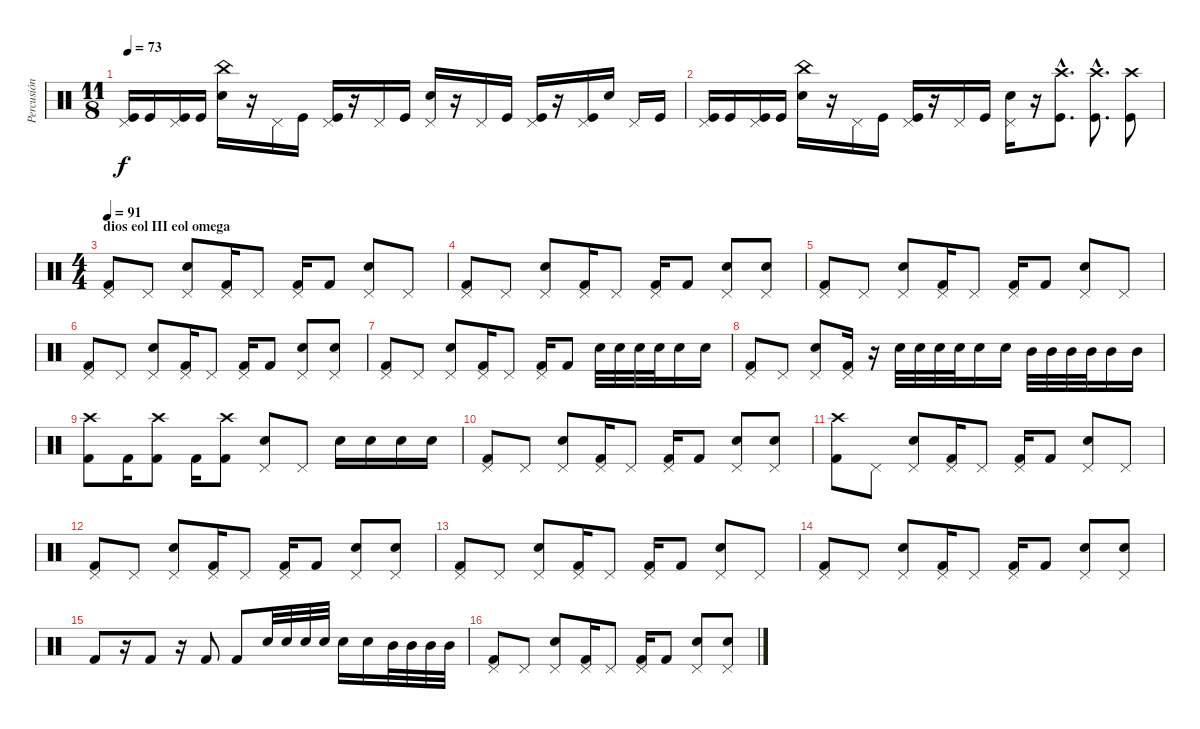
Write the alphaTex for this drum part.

\track ("Percusión" "Percusión") {instrument percussion}
\staff {score}
\articulation defaults
\ts (11 8)
\tempo 73
\clef neutral
\ks c
("Pedal Hi-Hat (hit)" "Kick (hit)").16{dy f} "Kick (hit)".16 ("Pedal Hi-Hat (hit)" "Kick (hit)").16 "Kick (hit)".16 ("China (hit)" "Electric Snare (hit)").16 r.16 "Pedal Hi-Hat (hit)".16 "Kick (hit)".16 ("Pedal Hi-Hat (hit)" "Kick (hit)").16 r.16 "Pedal Hi-Hat (hit)".16 "Kick (hit)".16 ("Pedal Hi-Hat (hit)" "Electric Snare (hit)").16 r.16 "Pedal Hi-Hat (hit)".16 "Kick (hit)".16 ("Pedal Hi-Hat (hit)" "Kick (hit)").16 r.16 ("Pedal Hi-Hat (hit)" "Kick (hit)").16 "Electric Snare (hit)".16 "Pedal Hi-Hat (hit)".16 "Kick (hit)".16 |
("Pedal Hi-Hat (hit)" "Kick (hit)").16 "Kick (hit)".16 ("Pedal Hi-Hat (hit)" "Kick (hit)").16 "Kick (hit)".16 ("China (hit)" "Electric Snare (hit)").16 r.16 "Pedal Hi-Hat (hit)".16 "Kick (hit)".16 ("Pedal Hi-Hat (hit)" "Kick (hit)").16 r.16 "Pedal Hi-Hat (hit)".16 "Kick (hit)".16 ("Pedal Hi-Hat (hit)" "Electric Snare (hit)").16 r.16 ("Crash high (hit)"{hac} "Kick (hit)"{hac}).8{d} ("Crash high (hit)"{hac} "Kick (hit)"{hac}).8{d} ("Crash high (hit)" "Kick (hit)").8 |
\ts (4 4)
\section ("" "dios eol III eol omega")
\tempo 91
("Pedal Hi-Hat (hit)" "Kick (hit) 2").8 "Pedal Hi-Hat (hit)".8 ("Pedal Hi-Hat (hit)" "Electric Snare (hit)").8 ("Pedal Hi-Hat (hit)" "Kick (hit) 2").16 "Pedal Hi-Hat (hit)".8 ("Pedal Hi-Hat (hit)" "Kick (hit) 2").16 "Kick (hit) 2".8 ("Pedal Hi-Hat (hit)" "Electric Snare (hit)").8 "Pedal Hi-Hat (hit)".8 |
("Pedal Hi-Hat (hit)" "Kick (hit) 2").8 "Pedal Hi-Hat (hit)".8 ("Pedal Hi-Hat (hit)" "Electric Snare (hit)").8 ("Pedal Hi-Hat (hit)" "Kick (hit) 2").16 "Pedal Hi-Hat (hit)".8 ("Pedal Hi-Hat (hit)" "Kick (hit) 2").16 "Kick (hit) 2".8 ("Pedal Hi-Hat (hit)" "Electric Snare (hit)").8 ("Pedal Hi-Hat (hit)" "Electric Snare (hit)").8 |
("Pedal Hi-Hat (hit)" "Kick (hit) 2").8 "Pedal Hi-Hat (hit)".8 ("Pedal Hi-Hat (hit)" "Electric Snare (hit)").8 ("Pedal Hi-Hat (hit)" "Kick (hit) 2").16 "Pedal Hi-Hat (hit)".8 ("Pedal Hi-Hat (hit)" "Kick (hit) 2").16 "Kick (hit) 2".8 ("Pedal Hi-Hat (hit)" "Electric Snare (hit)").8 "Pedal Hi-Hat (hit)".8 |
("Pedal Hi-Hat (hit)" "Kick (hit) 2").8 "Pedal Hi-Hat (hit)".8 ("Pedal Hi-Hat (hit)" "Electric Snare (hit)").8 ("Pedal Hi-Hat (hit)" "Kick (hit) 2").16 "Pedal Hi-Hat (hit)".8 ("Pedal Hi-Hat (hit)" "Kick (hit) 2").16 "Kick (hit) 2".8 ("Pedal Hi-Hat (hit)" "Electric Snare (hit)").8 ("Pedal Hi-Hat (hit)" "Electric Snare (hit)").8 |
("Pedal Hi-Hat (hit)" "Kick (hit) 2").8 "Pedal Hi-Hat (hit)".8 ("Pedal Hi-Hat (hit)" "Electric Snare (hit)").8 ("Pedal Hi-Hat (hit)" "Kick (hit) 2").16 "Pedal Hi-Hat (hit)".8 ("Pedal Hi-Hat (hit)" "Kick (hit) 2").16 "Kick (hit) 2".8 "Electric Snare (hit)".32 "Electric Snare (hit)".32 "Electric Snare (hit)".32 "Electric Snare (hit)".32 "Electric Snare (hit)".16 "Electric Snare (hit)".16 |
("Pedal Hi-Hat (hit)" "Kick (hit) 2").8 "Pedal Hi-Hat (hit)".8 ("Pedal Hi-Hat (hit)" "Electric Snare (hit)").8 ("Pedal Hi-Hat (hit)" "Kick (hit) 2").16 r.16 "Electric Snare (hit)".32 "Electric Snare (hit)".32 "Electric Snare (hit)".32 "Electric Snare (hit)".32 "Electric Snare (hit)".16 "Electric Snare (hit)".16 "Mid Tom (hit)".32 "Mid Tom (hit)".32 "Mid Tom (hit)".32 "Mid Tom (hit)".32 "Mid Tom (hit)".16 "Mid Tom (hit)".16 |
("Crash high (hit)" "Kick (hit) 2").8 "Kick (hit) 2".16 ("Crash high (hit)" "Kick (hit) 2").8 "Kick (hit) 2".16 ("Crash high (hit)" "Kick (hit) 2").8 ("Pedal Hi-Hat (hit)" "Electric Snare (hit)").8 "Pedal Hi-Hat (hit)".8 "Electric Snare (hit)".16 "Electric Snare (hit)".16 "Electric Snare (hit)".16 "Electric Snare (hit)".16 |
("Pedal Hi-Hat (hit)" "Kick (hit) 2").8 "Pedal Hi-Hat (hit)".8 ("Pedal Hi-Hat (hit)" "Electric Snare (hit)").8 ("Pedal Hi-Hat (hit)" "Kick (hit) 2").16 "Pedal Hi-Hat (hit)".8 ("Pedal Hi-Hat (hit)" "Kick (hit) 2").16 "Kick (hit) 2".8 ("Pedal Hi-Hat (hit)" "Electric Snare (hit)").8 ("Pedal Hi-Hat (hit)" "Electric Snare (hit)").8 |
("Crash high (hit)" "Kick (hit) 2").8 "Pedal Hi-Hat (hit)".8 ("Pedal Hi-Hat (hit)" "Electric Snare (hit)").8 ("Pedal Hi-Hat (hit)" "Kick (hit) 2").16 "Pedal Hi-Hat (hit)".8 ("Pedal Hi-Hat (hit)" "Kick (hit) 2").16 "Kick (hit) 2".8 ("Pedal Hi-Hat (hit)" "Electric Snare (hit)").8 "Pedal Hi-Hat (hit)".8 |
("Pedal Hi-Hat (hit)" "Kick (hit) 2").8 "Pedal Hi-Hat (hit)".8 ("Pedal Hi-Hat (hit)" "Electric Snare (hit)").8 ("Pedal Hi-Hat (hit)" "Kick (hit) 2").16 "Pedal Hi-Hat (hit)".8 ("Pedal Hi-Hat (hit)" "Kick (hit) 2").16 "Kick (hit) 2".8 ("Pedal Hi-Hat (hit)" "Electric Snare (hit)").8 ("Pedal Hi-Hat (hit)" "Electric Snare (hit)").8 |
("Pedal Hi-Hat (hit)" "Kick (hit) 2").8 "Pedal Hi-Hat (hit)".8 ("Pedal Hi-Hat (hit)" "Electric Snare (hit)").8 ("Pedal Hi-Hat (hit)" "Kick (hit) 2").16 "Pedal Hi-Hat (hit)".8 ("Pedal Hi-Hat (hit)" "Kick (hit) 2").16 "Kick (hit) 2".8 ("Pedal Hi-Hat (hit)" "Electric Snare (hit)").8 "Pedal Hi-Hat (hit)".8 |
("Pedal Hi-Hat (hit)" "Kick (hit) 2").8 "Pedal Hi-Hat (hit)".8 ("Pedal Hi-Hat (hit)" "Electric Snare (hit)").8 ("Pedal Hi-Hat (hit)" "Kick (hit) 2").16 "Pedal Hi-Hat (hit)".8 ("Pedal Hi-Hat (hit)" "Kick (hit) 2").16 "Kick (hit) 2".8 ("Pedal Hi-Hat (hit)" "Electric Snare (hit)").8 ("Pedal Hi-Hat (hit)" "Electric Snare (hit)").8 |
"Kick (hit) 2".8 r.16 "Kick (hit) 2".8 r.16 "Kick (hit) 2".8 "Kick (hit) 2".8 "Electric Snare (hit)".32 "Electric Snare (hit)".32 "Electric Snare (hit)".32 "Electric Snare (hit)".32 "Electric Snare (hit)".16 "Electric Snare (hit)".16 "Mid Tom (hit)".32 "Mid Tom (hit)".32 "Mid Tom (hit)".32 "Mid Tom (hit)".32 |
("Pedal Hi-Hat (hit)" "Kick (hit) 2").8 "Pedal Hi-Hat (hit)".8 ("Pedal Hi-Hat (hit)" "Electric Snare (hit)").8 ("Pedal Hi-Hat (hit)" "Kick (hit) 2").16 "Pedal Hi-Hat (hit)".8 ("Pedal Hi-Hat (hit)" "Kick (hit) 2").16 "Kick (hit) 2".8 ("Pedal Hi-Hat (hit)" "Electric Snare (hit)").8 ("Pedal Hi-Hat (hit)" "Electric Snare (hit)").8
